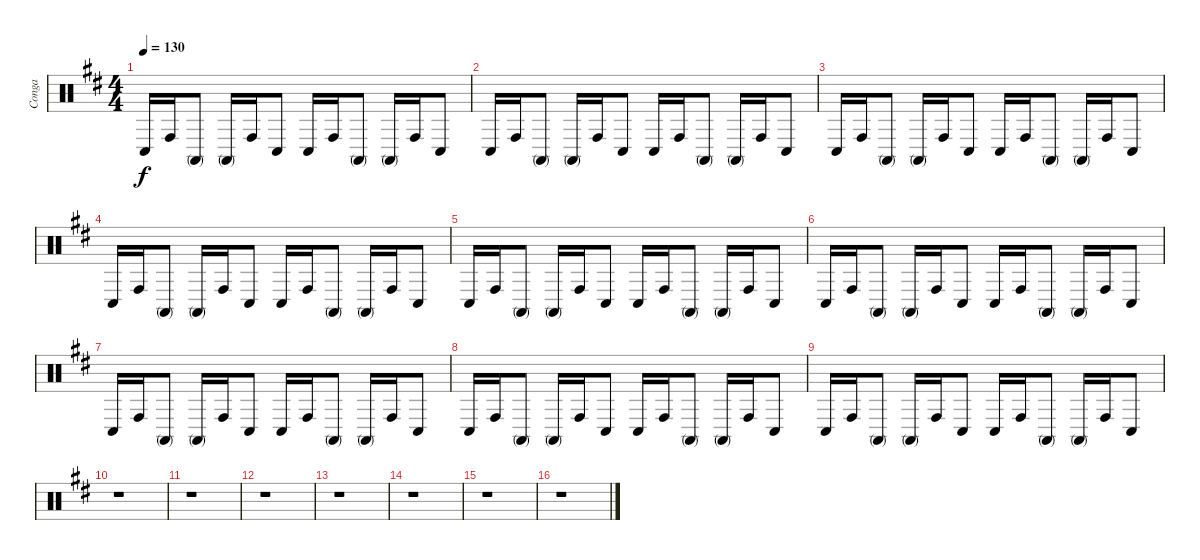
\track ("Conga" "Conga") {instrument percussion}
\staff {score}
\articulation defaults
\ts (4 4)
\tempo 130
\clef neutral
\ks d "Conga low (hit)".16{dy f} "Conga high (hit)".16 "Conga high (mute)".8 "Conga high (mute)".16 "Conga high (hit)".16 "Conga low (hit)".8 "Conga low (hit)".16 "Conga high (hit)".16 "Conga high (mute)".8 "Conga high (mute)".16 "Conga high (hit)".16 "Conga low (hit)".8
|
"Conga low (hit)".16 "Conga high (hit)".16 "Conga high (mute)".8 "Conga high (mute)".16 "Conga high (hit)".16 "Conga low (hit)".8 "Conga low (hit)".16 "Conga high (hit)".16 "Conga high (mute)".8 "Conga high (mute)".16 "Conga high (hit)".16 "Conga low (hit)".8 |
"Conga low (hit)".16 "Conga high (hit)".16 "Conga high (mute)".8 "Conga high (mute)".16 "Conga high (hit)".16 "Conga low (hit)".8 "Conga low (hit)".16 "Conga high (hit)".16 "Conga high (mute)".8 "Conga high (mute)".16 "Conga high (hit)".16 "Conga low (hit)".8 |
"Conga low (hit)".16 "Conga high (hit)".16 "Conga high (mute)".8 "Conga high (mute)".16 "Conga high (hit)".16 "Conga low (hit)".8 "Conga low (hit)".16 "Conga high (hit)".16 "Conga high (mute)".8 "Conga high (mute)".16 "Conga high (hit)".16 "Conga low (hit)".8 |
"Conga low (hit)".16 "Conga high (hit)".16 "Conga high (mute)".8 "Conga high (mute)".16 "Conga high (hit)".16 "Conga low (hit)".8 "Conga low (hit)".16 "Conga high (hit)".16 "Conga high (mute)".8 "Conga high (mute)".16 "Conga high (hit)".16 "Conga low (hit)".8 |
"Conga low (hit)".16 "Conga high (hit)".16 "Conga high (mute)".8 "Conga high (mute)".16 "Conga high (hit)".16 "Conga low (hit)".8 "Conga low (hit)".16 "Conga high (hit)".16 "Conga high (mute)".8 "Conga high (mute)".16 "Conga high (hit)".16 "Conga low (hit)".8 |
"Conga low (hit)".16 "Conga high (hit)".16 "Conga high (mute)".8 "Conga high (mute)".16 "Conga high (hit)".16 "Conga low (hit)".8 "Conga low (hit)".16 "Conga high (hit)".16 "Conga high (mute)".8 "Conga high (mute)".16 "Conga high (hit)".16 "Conga low (hit)".8 |
"Conga low (hit)".16 "Conga high (hit)".16 "Conga high (mute)".8 "Conga high (mute)".16 "Conga high (hit)".16 "Conga low (hit)".8 "Conga low (hit)".16 "Conga high (hit)".16 "Conga high (mute)".8 "Conga high (mute)".16 "Conga high (hit)".16 "Conga low (hit)".8 |
"Conga low (hit)".16 "Conga high (hit)".16 "Conga high (mute)".8 "Conga high (mute)".16 "Conga high (hit)".16 "Conga low (hit)".8 "Conga low (hit)".16 "Conga high (hit)".16 "Conga high (mute)".8 "Conga high (mute)".16 "Conga high (hit)".16 "Conga low (hit)".8 |
r.1 |
r.1 |
r.1 |
r.1 |
r.1 |
r.1 |
r.1
